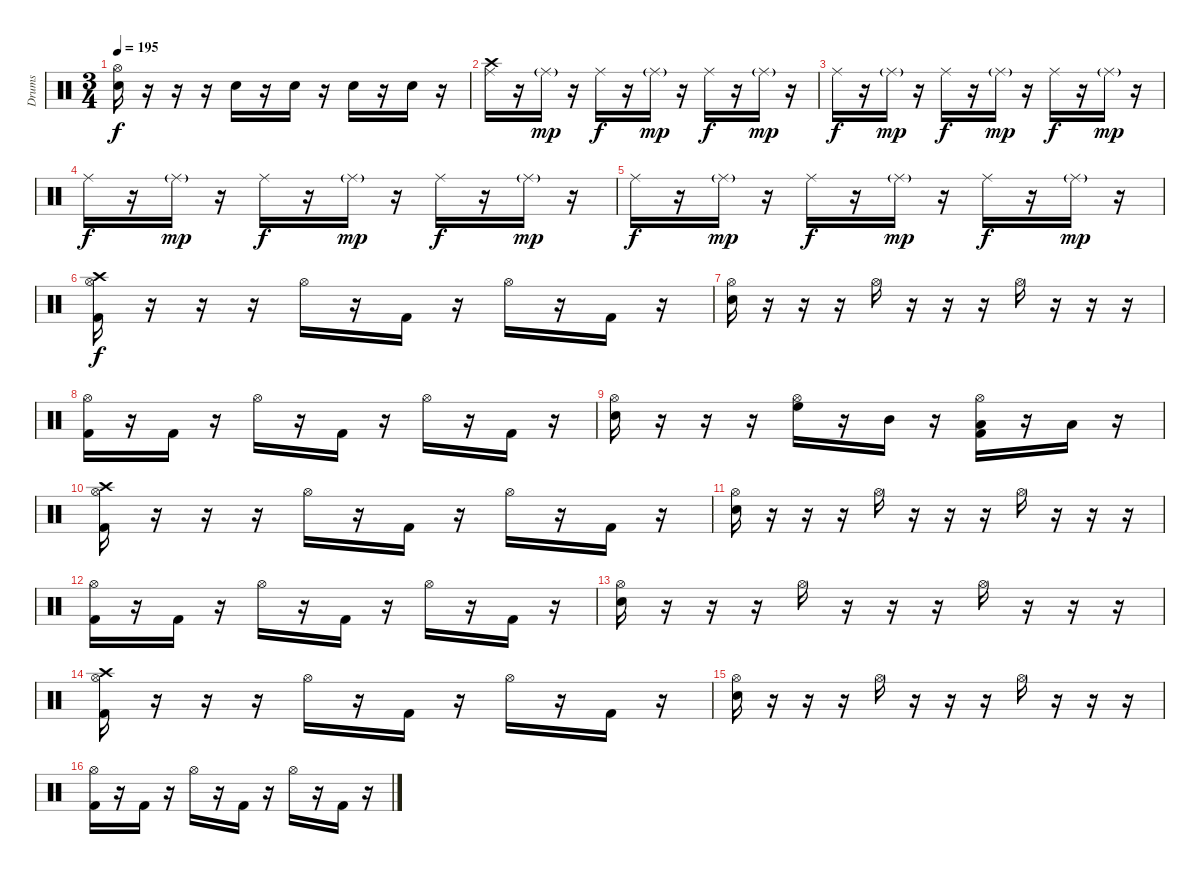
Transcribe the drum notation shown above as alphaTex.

\track ("Drums" "Drums") {instrument percussion}
\staff {score}
\articulation defaults
\ts (3 4)
\tempo 195
\clef neutral
\ks c
("Hi-Hat (open)" "Snare (hit) 2").16{dy f} r.16 r.16 r.16 "Snare (hit) 2".16 r.16 "Snare (hit) 2".16 r.16 "Snare (hit) 2".16 r.16 "Snare (hit) 2".16 r.16 |
("Crash high (hit)" "Ride (middle)").16 r.16 "Ride (middle)"{g}.16{dy mp} r.16 "Ride (middle)".16{dy f} r.16 "Ride (middle)"{g}.16{dy mp} r.16 "Ride (middle)".16{dy f} r.16 "Ride (middle)"{g}.16{dy mp} r.16 |
"Ride (middle)".16{dy f} r.16 "Ride (middle)"{g}.16{dy mp} r.16 "Ride (middle)".16{dy f} r.16 "Ride (middle)"{g}.16{dy mp} r.16 "Ride (middle)".16{dy f} r.16 "Ride (middle)"{g}.16{dy mp} r.16 |
"Ride (middle)".16{dy f} r.16 "Ride (middle)"{g}.16{dy mp} r.16 "Ride (middle)".16{dy f} r.16 "Ride (middle)"{g}.16{dy mp} r.16 "Ride (middle)".16{dy f} r.16 "Ride (middle)"{g}.16{dy mp} r.16 |
"Ride (middle)".16{dy f} r.16 "Ride (middle)"{g}.16{dy mp} r.16 "Ride (middle)".16{dy f} r.16 "Ride (middle)"{g}.16{dy mp} r.16 "Ride (middle)".16{dy f} r.16 "Ride (middle)"{g}.16{dy mp} r.16 |
("Crash high (hit)" "Hi-Hat (open)" "Kick (hit) 2").16{dy f} r.16 r.16 r.16 "Hi-Hat (open)".16 r.16 "Kick (hit) 2".16 r.16 "Hi-Hat (open)".16 r.16 "Kick (hit) 2".16 r.16 |
("Hi-Hat (open)" "Snare (hit) 2").16 r.16 r.16 r.16 "Hi-Hat (open)".16 r.16 r.16 r.16 "Hi-Hat (open)".16 r.16 r.16 r.16 |
("Hi-Hat (open)" "Kick (hit) 2").16 r.16 "Kick (hit) 2".16 r.16 "Hi-Hat (open)".16 r.16 "Kick (hit) 2".16 r.16 "Hi-Hat (open)".16 r.16 "Kick (hit) 2".16 r.16 |
("Hi-Hat (open)" "Snare (hit) 2").16 r.16 r.16 r.16 ("Hi-Hat (open)" "High Floor Tom (hit)").16 r.16 "Mid Tom (hit)".16 r.16 ("Hi-Hat (open)" "Low Tom (hit)" "Kick (hit) 2").16 r.16 "Low Tom (hit)".16 r.16 |
("Crash high (hit)" "Hi-Hat (open)" "Kick (hit) 2").16 r.16 r.16 r.16 "Hi-Hat (open)".16 r.16 "Kick (hit) 2".16 r.16 "Hi-Hat (open)".16 r.16 "Kick (hit) 2".16 r.16 |
("Hi-Hat (open)" "Snare (hit) 2").16 r.16 r.16 r.16 "Hi-Hat (open)".16 r.16 r.16 r.16 "Hi-Hat (open)".16 r.16 r.16 r.16 |
("Hi-Hat (open)" "Kick (hit) 2").16 r.16 "Kick (hit) 2".16 r.16 "Hi-Hat (open)".16 r.16 "Kick (hit) 2".16 r.16 "Hi-Hat (open)".16 r.16 "Kick (hit) 2".16 r.16 |
("Hi-Hat (open)" "Snare (hit) 2").16 r.16 r.16 r.16 "Hi-Hat (open)".16 r.16 r.16 r.16 "Hi-Hat (open)".16 r.16 r.16 r.16 |
("Crash high (hit)" "Hi-Hat (open)" "Kick (hit) 2").16 r.16 r.16 r.16 "Hi-Hat (open)".16 r.16 "Kick (hit) 2".16 r.16 "Hi-Hat (open)".16 r.16 "Kick (hit) 2".16 r.16 |
("Hi-Hat (open)" "Snare (hit) 2").16 r.16 r.16 r.16 "Hi-Hat (open)".16 r.16 r.16 r.16 "Hi-Hat (open)".16 r.16 r.16 r.16 |
("Hi-Hat (open)" "Kick (hit) 2").16 r.16 "Kick (hit) 2".16 r.16 "Hi-Hat (open)".16 r.16 "Kick (hit) 2".16 r.16 "Hi-Hat (open)".16 r.16 "Kick (hit) 2".16 r.16
